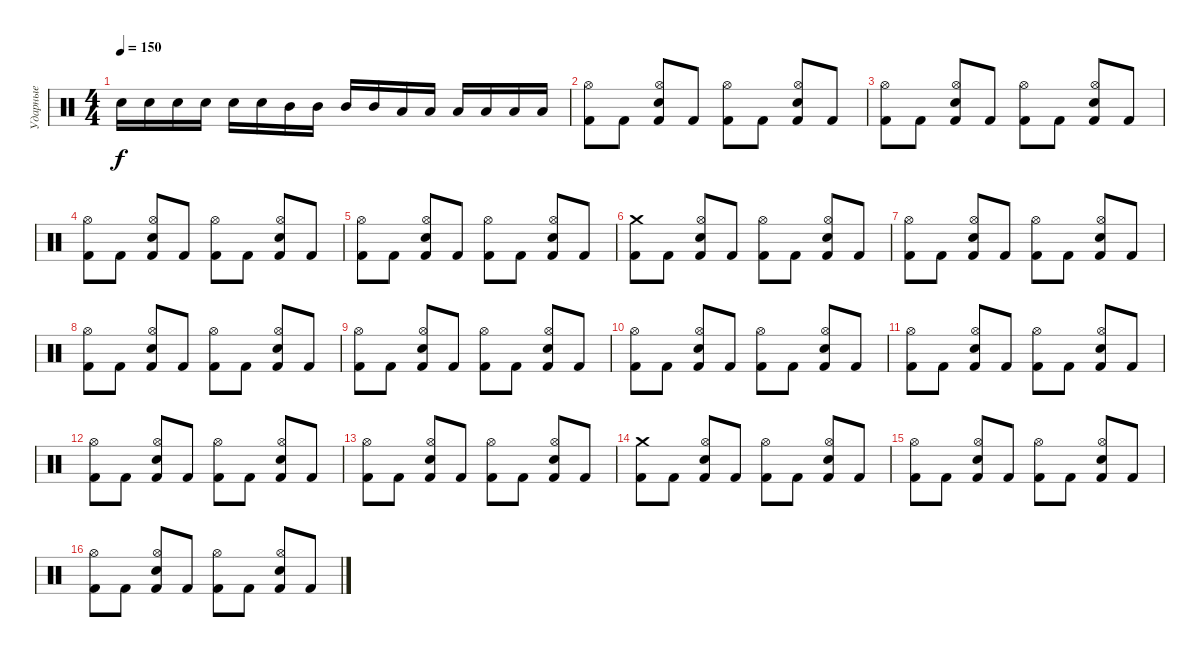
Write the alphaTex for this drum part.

\track ("Ударные" "Ударные") {instrument percussion}
\staff {score}
\articulation defaults
\ts (4 4)
\tempo 150
\clef neutral
\ks c "Electric Snare (hit)".16{dy f} "Electric Snare (hit)".16 "Electric Snare (hit)".16 "Electric Snare (hit)".16 "Electric Snare (hit)".16 "Electric Snare (hit)".16 "Mid Tom (hit)".16 "Mid Tom (hit)".16 "Mid Tom (hit)".16 "Mid Tom (hit)".16 "Low Tom (hit)".16 "Low Tom (hit)".16 "Low Tom (hit)".16 "Low Tom (hit)".16 "Low Tom (hit)".16 "Low Tom (hit)".16
|
("Hi-Hat (open)" "Kick (hit) 2").8 "Kick (hit) 2".8 ("Hi-Hat (open)" "Electric Snare (hit)" "Kick (hit) 2").8 "Kick (hit) 2".8 ("Hi-Hat (open)" "Kick (hit) 2").8 "Kick (hit) 2".8 ("Hi-Hat (open)" "Electric Snare (hit)" "Kick (hit) 2").8 "Kick (hit) 2".8 |
("Hi-Hat (open)" "Kick (hit) 2").8 "Kick (hit) 2".8 ("Hi-Hat (open)" "Electric Snare (hit)" "Kick (hit) 2").8 "Kick (hit) 2".8 ("Hi-Hat (open)" "Kick (hit) 2").8 "Kick (hit) 2".8 ("Hi-Hat (open)" "Electric Snare (hit)" "Kick (hit) 2").8 "Kick (hit) 2".8 |
("Hi-Hat (open)" "Kick (hit) 2").8 "Kick (hit) 2".8 ("Hi-Hat (open)" "Electric Snare (hit)" "Kick (hit) 2").8 "Kick (hit) 2".8 ("Hi-Hat (open)" "Kick (hit) 2").8 "Kick (hit) 2".8 ("Hi-Hat (open)" "Electric Snare (hit)" "Kick (hit) 2").8 "Kick (hit) 2".8 |
("Hi-Hat (open)" "Kick (hit) 2").8 "Kick (hit) 2".8 ("Hi-Hat (open)" "Electric Snare (hit)" "Kick (hit) 2").8 "Kick (hit) 2".8 ("Hi-Hat (open)" "Kick (hit) 2").8 "Kick (hit) 2".8 ("Hi-Hat (open)" "Electric Snare (hit)" "Kick (hit) 2").8 "Kick (hit) 2".8 |
("Crash medium (hit)" "Kick (hit) 2").8 "Kick (hit) 2".8 ("Hi-Hat (open)" "Electric Snare (hit)" "Kick (hit) 2").8 "Kick (hit) 2".8 ("Hi-Hat (open)" "Kick (hit) 2").8 "Kick (hit) 2".8 ("Hi-Hat (open)" "Electric Snare (hit)" "Kick (hit) 2").8 "Kick (hit) 2".8 |
("Hi-Hat (open)" "Kick (hit) 2").8 "Kick (hit) 2".8 ("Hi-Hat (open)" "Electric Snare (hit)" "Kick (hit) 2").8 "Kick (hit) 2".8 ("Hi-Hat (open)" "Kick (hit) 2").8 "Kick (hit) 2".8 ("Hi-Hat (open)" "Electric Snare (hit)" "Kick (hit) 2").8 "Kick (hit) 2".8 |
("Hi-Hat (open)" "Kick (hit) 2").8 "Kick (hit) 2".8 ("Hi-Hat (open)" "Electric Snare (hit)" "Kick (hit) 2").8 "Kick (hit) 2".8 ("Hi-Hat (open)" "Kick (hit) 2").8 "Kick (hit) 2".8 ("Hi-Hat (open)" "Electric Snare (hit)" "Kick (hit) 2").8 "Kick (hit) 2".8 |
("Hi-Hat (open)" "Kick (hit) 2").8 "Kick (hit) 2".8 ("Hi-Hat (open)" "Electric Snare (hit)" "Kick (hit) 2").8 "Kick (hit) 2".8 ("Hi-Hat (open)" "Kick (hit) 2").8 "Kick (hit) 2".8 ("Hi-Hat (open)" "Electric Snare (hit)" "Kick (hit) 2").8 "Kick (hit) 2".8 |
("Hi-Hat (open)" "Kick (hit) 2").8 "Kick (hit) 2".8 ("Hi-Hat (open)" "Electric Snare (hit)" "Kick (hit) 2").8 "Kick (hit) 2".8 ("Hi-Hat (open)" "Kick (hit) 2").8 "Kick (hit) 2".8 ("Hi-Hat (open)" "Electric Snare (hit)" "Kick (hit) 2").8 "Kick (hit) 2".8 |
("Hi-Hat (open)" "Kick (hit) 2").8 "Kick (hit) 2".8 ("Hi-Hat (open)" "Electric Snare (hit)" "Kick (hit) 2").8 "Kick (hit) 2".8 ("Hi-Hat (open)" "Kick (hit) 2").8 "Kick (hit) 2".8 ("Hi-Hat (open)" "Electric Snare (hit)" "Kick (hit) 2").8 "Kick (hit) 2".8 |
("Hi-Hat (open)" "Kick (hit) 2").8 "Kick (hit) 2".8 ("Hi-Hat (open)" "Electric Snare (hit)" "Kick (hit) 2").8 "Kick (hit) 2".8 ("Hi-Hat (open)" "Kick (hit) 2").8 "Kick (hit) 2".8 ("Hi-Hat (open)" "Electric Snare (hit)" "Kick (hit) 2").8 "Kick (hit) 2".8 |
("Hi-Hat (open)" "Kick (hit) 2").8 "Kick (hit) 2".8 ("Hi-Hat (open)" "Electric Snare (hit)" "Kick (hit) 2").8 "Kick (hit) 2".8 ("Hi-Hat (open)" "Kick (hit) 2").8 "Kick (hit) 2".8 ("Hi-Hat (open)" "Electric Snare (hit)" "Kick (hit) 2").8 "Kick (hit) 2".8 |
("Crash medium (hit)" "Kick (hit) 2").8 "Kick (hit) 2".8 ("Hi-Hat (open)" "Electric Snare (hit)" "Kick (hit) 2").8 "Kick (hit) 2".8 ("Hi-Hat (open)" "Kick (hit) 2").8 "Kick (hit) 2".8 ("Hi-Hat (open)" "Electric Snare (hit)" "Kick (hit) 2").8 "Kick (hit) 2".8 |
("Hi-Hat (open)" "Kick (hit) 2").8 "Kick (hit) 2".8 ("Hi-Hat (open)" "Electric Snare (hit)" "Kick (hit) 2").8 "Kick (hit) 2".8 ("Hi-Hat (open)" "Kick (hit) 2").8 "Kick (hit) 2".8 ("Hi-Hat (open)" "Electric Snare (hit)" "Kick (hit) 2").8 "Kick (hit) 2".8 |
("Hi-Hat (open)" "Kick (hit) 2").8 "Kick (hit) 2".8 ("Hi-Hat (open)" "Electric Snare (hit)" "Kick (hit) 2").8 "Kick (hit) 2".8 ("Hi-Hat (open)" "Kick (hit) 2").8 "Kick (hit) 2".8 ("Hi-Hat (open)" "Electric Snare (hit)" "Kick (hit) 2").8 "Kick (hit) 2".8
